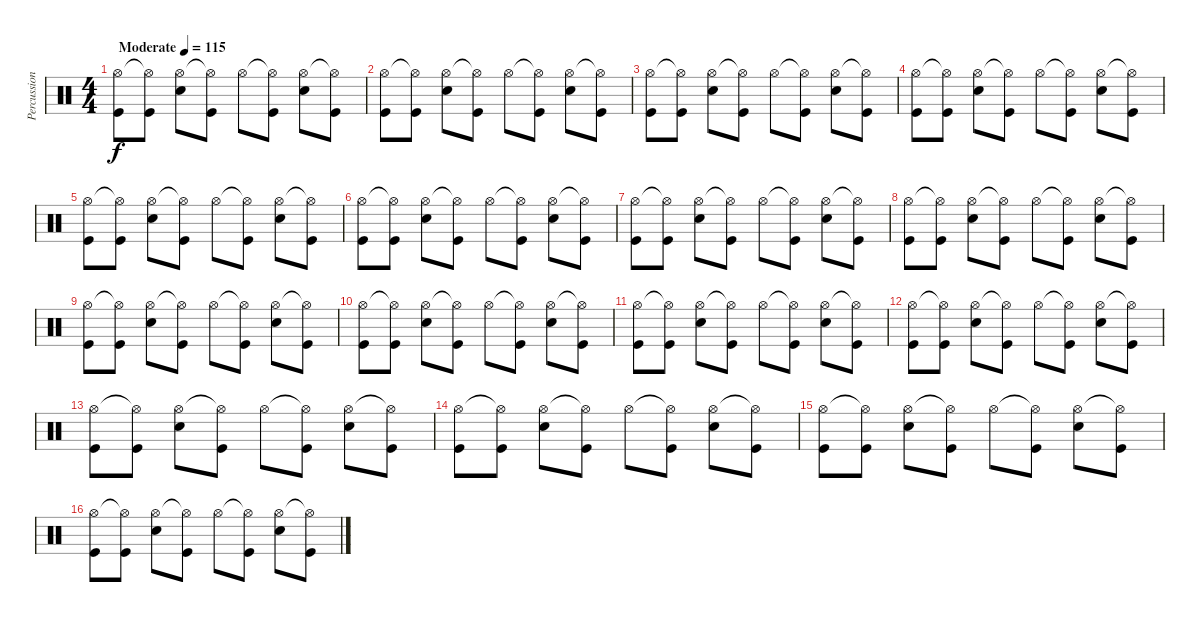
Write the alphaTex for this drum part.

\track ("Percussioni" "Percussion") {instrument percussion}
\staff {score}
\articulation defaults
\ts (4 4)
\tempo (115 "Moderate")
\clef neutral
\ks c
("Hi-Hat (open)" "Kick (hit)").8{dy f} ("Hi-Hat (open)"{t} "Kick (hit)").8 ("Hi-Hat (open)" "Snare (hit) 2").8 ("Hi-Hat (open)"{t} "Kick (hit)").8 "Hi-Hat (open)".8 ("Hi-Hat (open)"{t} "Kick (hit)").8 ("Hi-Hat (open)" "Snare (hit) 2").8 ("Hi-Hat (open)"{t} "Kick (hit)").8 |
("Hi-Hat (open)" "Kick (hit)").8 ("Hi-Hat (open)"{t} "Kick (hit)").8 ("Hi-Hat (open)" "Snare (hit) 2").8 ("Hi-Hat (open)"{t} "Kick (hit)").8 "Hi-Hat (open)".8 ("Hi-Hat (open)"{t} "Kick (hit)").8 ("Hi-Hat (open)" "Snare (hit) 2").8 ("Hi-Hat (open)"{t} "Kick (hit)").8 |
("Hi-Hat (open)" "Kick (hit)").8 ("Hi-Hat (open)"{t} "Kick (hit)").8 ("Hi-Hat (open)" "Snare (hit) 2").8 ("Hi-Hat (open)"{t} "Kick (hit)").8 "Hi-Hat (open)".8 ("Hi-Hat (open)"{t} "Kick (hit)").8 ("Hi-Hat (open)" "Snare (hit) 2").8 ("Hi-Hat (open)"{t} "Kick (hit)").8 |
("Hi-Hat (open)" "Kick (hit)").8 ("Hi-Hat (open)"{t} "Kick (hit)").8 ("Hi-Hat (open)" "Snare (hit) 2").8 ("Hi-Hat (open)"{t} "Kick (hit)").8 "Hi-Hat (open)".8 ("Hi-Hat (open)"{t} "Kick (hit)").8 ("Hi-Hat (open)" "Snare (hit) 2").8 ("Hi-Hat (open)"{t} "Kick (hit)").8 |
("Hi-Hat (open)" "Kick (hit)").8 ("Hi-Hat (open)"{t} "Kick (hit)").8 ("Hi-Hat (open)" "Snare (hit) 2").8 ("Hi-Hat (open)"{t} "Kick (hit)").8 "Hi-Hat (open)".8 ("Hi-Hat (open)"{t} "Kick (hit)").8 ("Hi-Hat (open)" "Snare (hit) 2").8 ("Hi-Hat (open)"{t} "Kick (hit)").8 |
("Hi-Hat (open)" "Kick (hit)").8 ("Hi-Hat (open)"{t} "Kick (hit)").8 ("Hi-Hat (open)" "Snare (hit) 2").8 ("Hi-Hat (open)"{t} "Kick (hit)").8 "Hi-Hat (open)".8 ("Hi-Hat (open)"{t} "Kick (hit)").8 ("Hi-Hat (open)" "Snare (hit) 2").8 ("Hi-Hat (open)"{t} "Kick (hit)").8 |
("Hi-Hat (open)" "Kick (hit)").8 ("Hi-Hat (open)"{t} "Kick (hit)").8 ("Hi-Hat (open)" "Snare (hit) 2").8 ("Hi-Hat (open)"{t} "Kick (hit)").8 "Hi-Hat (open)".8 ("Hi-Hat (open)"{t} "Kick (hit)").8 ("Hi-Hat (open)" "Snare (hit) 2").8 ("Hi-Hat (open)"{t} "Kick (hit)").8 |
("Hi-Hat (open)" "Kick (hit)").8 ("Hi-Hat (open)"{t} "Kick (hit)").8 ("Hi-Hat (open)" "Snare (hit) 2").8 ("Hi-Hat (open)"{t} "Kick (hit)").8 "Hi-Hat (open)".8 ("Hi-Hat (open)"{t} "Kick (hit)").8 ("Hi-Hat (open)" "Snare (hit) 2").8 ("Hi-Hat (open)"{t} "Kick (hit)").8 |
("Hi-Hat (open)" "Kick (hit)").8 ("Hi-Hat (open)"{t} "Kick (hit)").8 ("Hi-Hat (open)" "Snare (hit) 2").8 ("Hi-Hat (open)"{t} "Kick (hit)").8 "Hi-Hat (open)".8 ("Hi-Hat (open)"{t} "Kick (hit)").8 ("Hi-Hat (open)" "Snare (hit) 2").8 ("Hi-Hat (open)"{t} "Kick (hit)").8 |
("Hi-Hat (open)" "Kick (hit)").8 ("Hi-Hat (open)"{t} "Kick (hit)").8 ("Hi-Hat (open)" "Snare (hit) 2").8 ("Hi-Hat (open)"{t} "Kick (hit)").8 "Hi-Hat (open)".8 ("Hi-Hat (open)"{t} "Kick (hit)").8 ("Hi-Hat (open)" "Snare (hit) 2").8 ("Hi-Hat (open)"{t} "Kick (hit)").8 |
("Hi-Hat (open)" "Kick (hit)").8 ("Hi-Hat (open)"{t} "Kick (hit)").8 ("Hi-Hat (open)" "Snare (hit) 2").8 ("Hi-Hat (open)"{t} "Kick (hit)").8 "Hi-Hat (open)".8 ("Hi-Hat (open)"{t} "Kick (hit)").8 ("Hi-Hat (open)" "Snare (hit) 2").8 ("Hi-Hat (open)"{t} "Kick (hit)").8 |
("Hi-Hat (open)" "Kick (hit)").8 ("Hi-Hat (open)"{t} "Kick (hit)").8 ("Hi-Hat (open)" "Snare (hit) 2").8 ("Hi-Hat (open)"{t} "Kick (hit)").8 "Hi-Hat (open)".8 ("Hi-Hat (open)"{t} "Kick (hit)").8 ("Hi-Hat (open)" "Snare (hit) 2").8 ("Hi-Hat (open)"{t} "Kick (hit)").8 |
("Hi-Hat (open)" "Kick (hit)").8 ("Hi-Hat (open)"{t} "Kick (hit)").8 ("Hi-Hat (open)" "Snare (hit) 2").8 ("Hi-Hat (open)"{t} "Kick (hit)").8 "Hi-Hat (open)".8 ("Hi-Hat (open)"{t} "Kick (hit)").8 ("Hi-Hat (open)" "Snare (hit) 2").8 ("Hi-Hat (open)"{t} "Kick (hit)").8 |
("Hi-Hat (open)" "Kick (hit)").8 ("Hi-Hat (open)"{t} "Kick (hit)").8 ("Hi-Hat (open)" "Snare (hit) 2").8 ("Hi-Hat (open)"{t} "Kick (hit)").8 "Hi-Hat (open)".8 ("Hi-Hat (open)"{t} "Kick (hit)").8 ("Hi-Hat (open)" "Snare (hit) 2").8 ("Hi-Hat (open)"{t} "Kick (hit)").8 |
("Hi-Hat (open)" "Kick (hit)").8 ("Hi-Hat (open)"{t} "Kick (hit)").8 ("Hi-Hat (open)" "Snare (hit) 2").8 ("Hi-Hat (open)"{t} "Kick (hit)").8 "Hi-Hat (open)".8 ("Hi-Hat (open)"{t} "Kick (hit)").8 ("Hi-Hat (open)" "Snare (hit) 2").8 ("Hi-Hat (open)"{t} "Kick (hit)").8 |
("Hi-Hat (open)" "Kick (hit)").8 ("Hi-Hat (open)"{t} "Kick (hit)").8 ("Hi-Hat (open)" "Snare (hit) 2").8 ("Hi-Hat (open)"{t} "Kick (hit)").8 "Hi-Hat (open)".8 ("Hi-Hat (open)"{t} "Kick (hit)").8 ("Hi-Hat (open)" "Snare (hit) 2").8 ("Hi-Hat (open)"{t} "Kick (hit)").8
